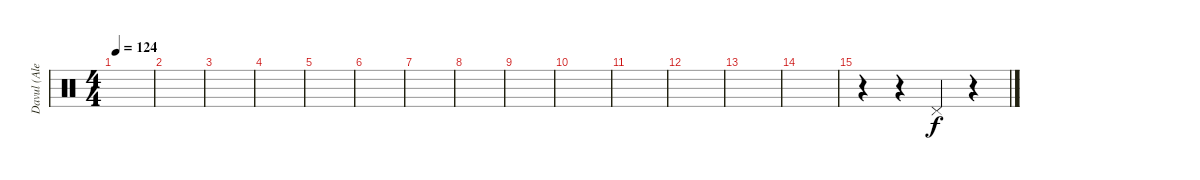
\track ("Davul (Alen)" "Davul (Ale") {instrument percussion}
\staff {score}
\articulation defaults
\ts (4 4)
\tempo 124
\clef neutral
\ks c
|
|
|
|
|
|
|
|
|
|
|
|
|
|
r.4 r.4 "Pedal Hi-Hat (hit)".4 r.4
